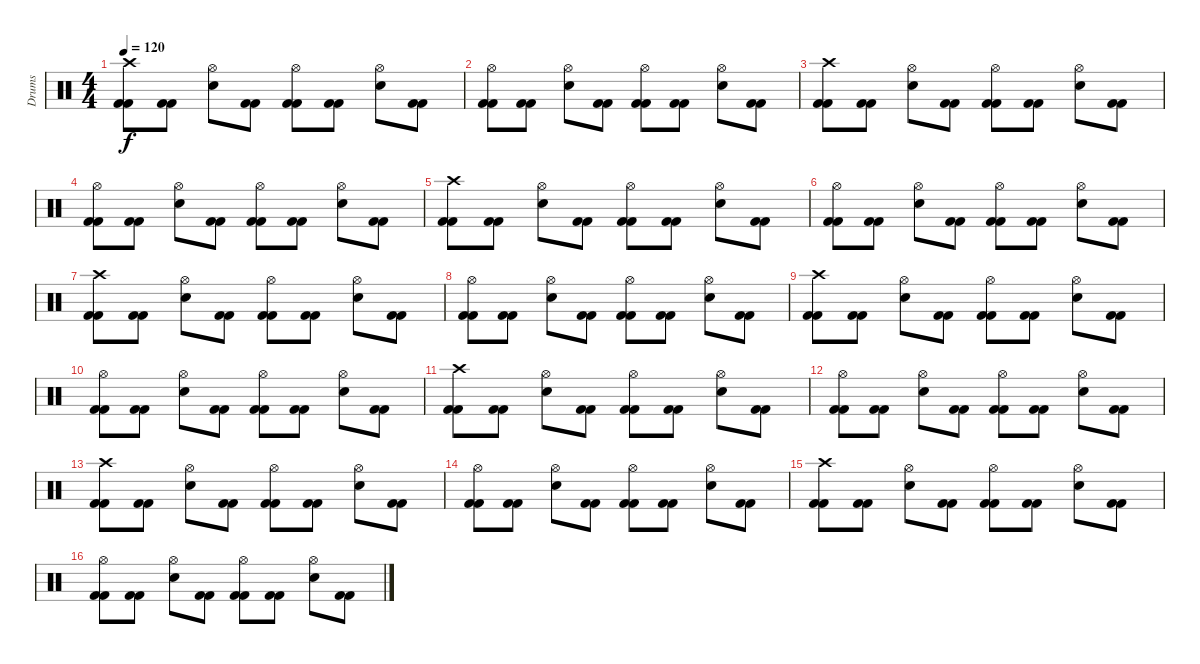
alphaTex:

\track ("Drums" "Drums") {instrument percussion}
\staff {score}
\articulation defaults
\ts (4 4)
\tempo 120
\clef neutral
\ks c
("Crash high (hit)" "Kick (hit) 2" "Kick (hit) 2").8{dy f} ("Kick (hit) 2" "Kick (hit) 2").8 ("Hi-Hat (open)" "Electric Snare (hit)").8 ("Kick (hit) 2" "Kick (hit) 2").8 ("Hi-Hat (open)" "Kick (hit) 2" "Kick (hit) 2").8 ("Kick (hit) 2" "Kick (hit) 2").8 ("Electric Snare (hit)" "Hi-Hat (open)").8 ("Kick (hit) 2" "Kick (hit) 2").8 |
("Hi-Hat (open)" "Kick (hit) 2" "Kick (hit) 2").8 ("Kick (hit) 2" "Kick (hit) 2").8 ("Hi-Hat (open)" "Electric Snare (hit)").8 ("Kick (hit) 2" "Kick (hit) 2").8 ("Hi-Hat (open)" "Kick (hit) 2" "Kick (hit) 2").8 ("Kick (hit) 2" "Kick (hit) 2").8 ("Electric Snare (hit)" "Hi-Hat (open)").8 ("Kick (hit) 2" "Kick (hit) 2").8 |
("Crash high (hit)" "Kick (hit) 2" "Kick (hit) 2").8 ("Kick (hit) 2" "Kick (hit) 2").8 ("Hi-Hat (open)" "Electric Snare (hit)").8 ("Kick (hit) 2" "Kick (hit) 2").8 ("Hi-Hat (open)" "Kick (hit) 2" "Kick (hit) 2").8 ("Kick (hit) 2" "Kick (hit) 2").8 ("Electric Snare (hit)" "Hi-Hat (open)").8 ("Kick (hit) 2" "Kick (hit) 2").8 |
("Hi-Hat (open)" "Kick (hit) 2" "Kick (hit) 2").8 ("Kick (hit) 2" "Kick (hit) 2").8 ("Hi-Hat (open)" "Electric Snare (hit)").8 ("Kick (hit) 2" "Kick (hit) 2").8 ("Hi-Hat (open)" "Kick (hit) 2" "Kick (hit) 2").8 ("Kick (hit) 2" "Kick (hit) 2").8 ("Electric Snare (hit)" "Hi-Hat (open)").8 ("Kick (hit) 2" "Kick (hit) 2").8 |
("Crash high (hit)" "Kick (hit) 2" "Kick (hit) 2").8 ("Kick (hit) 2" "Kick (hit) 2").8 ("Hi-Hat (open)" "Electric Snare (hit)").8 ("Kick (hit) 2" "Kick (hit) 2").8 ("Hi-Hat (open)" "Kick (hit) 2" "Kick (hit) 2").8 ("Kick (hit) 2" "Kick (hit) 2").8 ("Electric Snare (hit)" "Hi-Hat (open)").8 ("Kick (hit) 2" "Kick (hit) 2").8 |
("Hi-Hat (open)" "Kick (hit) 2" "Kick (hit) 2").8 ("Kick (hit) 2" "Kick (hit) 2").8 ("Hi-Hat (open)" "Electric Snare (hit)").8 ("Kick (hit) 2" "Kick (hit) 2").8 ("Hi-Hat (open)" "Kick (hit) 2" "Kick (hit) 2").8 ("Kick (hit) 2" "Kick (hit) 2").8 ("Electric Snare (hit)" "Hi-Hat (open)").8 ("Kick (hit) 2" "Kick (hit) 2").8 |
("Crash high (hit)" "Kick (hit) 2" "Kick (hit) 2").8 ("Kick (hit) 2" "Kick (hit) 2").8 ("Hi-Hat (open)" "Electric Snare (hit)").8 ("Kick (hit) 2" "Kick (hit) 2").8 ("Hi-Hat (open)" "Kick (hit) 2" "Kick (hit) 2").8 ("Kick (hit) 2" "Kick (hit) 2").8 ("Electric Snare (hit)" "Hi-Hat (open)").8 ("Kick (hit) 2" "Kick (hit) 2").8 |
("Hi-Hat (open)" "Kick (hit) 2" "Kick (hit) 2").8 ("Kick (hit) 2" "Kick (hit) 2").8 ("Hi-Hat (open)" "Electric Snare (hit)").8 ("Kick (hit) 2" "Kick (hit) 2").8 ("Hi-Hat (open)" "Kick (hit) 2" "Kick (hit) 2").8 ("Kick (hit) 2" "Kick (hit) 2").8 ("Electric Snare (hit)" "Hi-Hat (open)").8 ("Kick (hit) 2" "Kick (hit) 2").8 |
("Crash high (hit)" "Kick (hit) 2" "Kick (hit) 2").8 ("Kick (hit) 2" "Kick (hit) 2").8 ("Hi-Hat (open)" "Electric Snare (hit)").8 ("Kick (hit) 2" "Kick (hit) 2").8 ("Hi-Hat (open)" "Kick (hit) 2" "Kick (hit) 2").8 ("Kick (hit) 2" "Kick (hit) 2").8 ("Electric Snare (hit)" "Hi-Hat (open)").8 ("Kick (hit) 2" "Kick (hit) 2").8 |
("Hi-Hat (open)" "Kick (hit) 2" "Kick (hit) 2").8 ("Kick (hit) 2" "Kick (hit) 2").8 ("Hi-Hat (open)" "Electric Snare (hit)").8 ("Kick (hit) 2" "Kick (hit) 2").8 ("Hi-Hat (open)" "Kick (hit) 2" "Kick (hit) 2").8 ("Kick (hit) 2" "Kick (hit) 2").8 ("Electric Snare (hit)" "Hi-Hat (open)").8 ("Kick (hit) 2" "Kick (hit) 2").8 |
("Crash high (hit)" "Kick (hit) 2" "Kick (hit) 2").8 ("Kick (hit) 2" "Kick (hit) 2").8 ("Hi-Hat (open)" "Electric Snare (hit)").8 ("Kick (hit) 2" "Kick (hit) 2").8 ("Hi-Hat (open)" "Kick (hit) 2" "Kick (hit) 2").8 ("Kick (hit) 2" "Kick (hit) 2").8 ("Electric Snare (hit)" "Hi-Hat (open)").8 ("Kick (hit) 2" "Kick (hit) 2").8 |
("Hi-Hat (open)" "Kick (hit) 2" "Kick (hit) 2").8 ("Kick (hit) 2" "Kick (hit) 2").8 ("Hi-Hat (open)" "Electric Snare (hit)").8 ("Kick (hit) 2" "Kick (hit) 2").8 ("Hi-Hat (open)" "Kick (hit) 2" "Kick (hit) 2").8 ("Kick (hit) 2" "Kick (hit) 2").8 ("Electric Snare (hit)" "Hi-Hat (open)").8 ("Kick (hit) 2" "Kick (hit) 2").8 |
("Crash high (hit)" "Kick (hit) 2" "Kick (hit) 2").8 ("Kick (hit) 2" "Kick (hit) 2").8 ("Hi-Hat (open)" "Electric Snare (hit)").8 ("Kick (hit) 2" "Kick (hit) 2").8 ("Hi-Hat (open)" "Kick (hit) 2" "Kick (hit) 2").8 ("Kick (hit) 2" "Kick (hit) 2").8 ("Electric Snare (hit)" "Hi-Hat (open)").8 ("Kick (hit) 2" "Kick (hit) 2").8 |
("Hi-Hat (open)" "Kick (hit) 2" "Kick (hit) 2").8 ("Kick (hit) 2" "Kick (hit) 2").8 ("Hi-Hat (open)" "Electric Snare (hit)").8 ("Kick (hit) 2" "Kick (hit) 2").8 ("Hi-Hat (open)" "Kick (hit) 2" "Kick (hit) 2").8 ("Kick (hit) 2" "Kick (hit) 2").8 ("Electric Snare (hit)" "Hi-Hat (open)").8 ("Kick (hit) 2" "Kick (hit) 2").8 |
("Crash high (hit)" "Kick (hit) 2" "Kick (hit) 2").8 ("Kick (hit) 2" "Kick (hit) 2").8 ("Hi-Hat (open)" "Electric Snare (hit)").8 ("Kick (hit) 2" "Kick (hit) 2").8 ("Hi-Hat (open)" "Kick (hit) 2" "Kick (hit) 2").8 ("Kick (hit) 2" "Kick (hit) 2").8 ("Electric Snare (hit)" "Hi-Hat (open)").8 ("Kick (hit) 2" "Kick (hit) 2").8 |
("Hi-Hat (open)" "Kick (hit) 2" "Kick (hit) 2").8 ("Kick (hit) 2" "Kick (hit) 2").8 ("Hi-Hat (open)" "Electric Snare (hit)").8 ("Kick (hit) 2" "Kick (hit) 2").8 ("Hi-Hat (open)" "Kick (hit) 2" "Kick (hit) 2").8 ("Kick (hit) 2" "Kick (hit) 2").8 ("Electric Snare (hit)" "Hi-Hat (open)").8 ("Kick (hit) 2" "Kick (hit) 2").8
